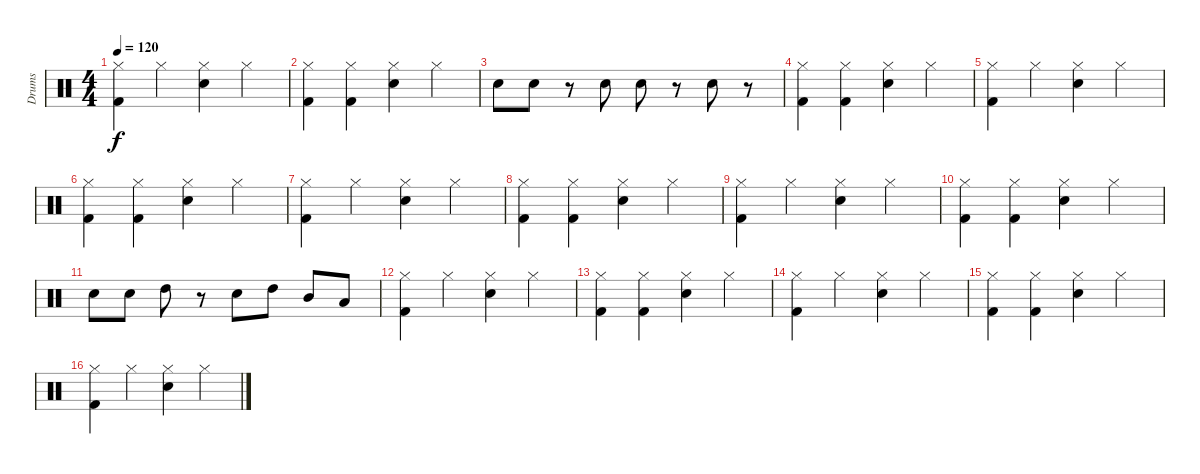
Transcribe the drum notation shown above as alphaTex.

\track ("Drums" "Drums") {instrument percussion}
\staff {score}
\articulation defaults
\ts (4 4)
\tempo 120
\clef neutral
\ks c
("Kick (hit) 2" "Hi-Hat (closed)").4{dy f} "Hi-Hat (closed)".4 ("Snare (hit) 2" "Hi-Hat (closed)").4 "Hi-Hat (closed)".4 |
("Kick (hit) 2" "Hi-Hat (closed)").4 ("Kick (hit) 2" "Hi-Hat (closed)").4 ("Snare (hit) 2" "Hi-Hat (closed)").4 "Hi-Hat (closed)".4 |
"Snare (hit) 2".8 "Snare (hit) 2".8 r.8 "Snare (hit) 2".8 "Snare (hit) 2".8 r.8 "Snare (hit) 2".8 r.8 |
("Kick (hit) 2" "Hi-Hat (closed)").4 ("Kick (hit) 2" "Hi-Hat (closed)").4 ("Snare (hit) 2" "Hi-Hat (closed)").4 "Hi-Hat (closed)".4 |
("Kick (hit) 2" "Hi-Hat (closed)").4 "Hi-Hat (closed)".4 ("Snare (hit) 2" "Hi-Hat (closed)").4 "Hi-Hat (closed)".4 |
("Kick (hit) 2" "Hi-Hat (closed)").4 ("Kick (hit) 2" "Hi-Hat (closed)").4 ("Snare (hit) 2" "Hi-Hat (closed)").4 "Hi-Hat (closed)".4 |
("Kick (hit) 2" "Hi-Hat (closed)").4 "Hi-Hat (closed)".4 ("Snare (hit) 2" "Hi-Hat (closed)").4 "Hi-Hat (closed)".4 |
("Kick (hit) 2" "Hi-Hat (closed)").4 ("Kick (hit) 2" "Hi-Hat (closed)").4 ("Snare (hit) 2" "Hi-Hat (closed)").4 "Hi-Hat (closed)".4 |
("Kick (hit) 2" "Hi-Hat (closed)").4 "Hi-Hat (closed)".4 ("Snare (hit) 2" "Hi-Hat (closed)").4 "Hi-Hat (closed)".4 |
("Kick (hit) 2" "Hi-Hat (closed)").4 ("Kick (hit) 2" "Hi-Hat (closed)").4 ("Snare (hit) 2" "Hi-Hat (closed)").4 "Hi-Hat (closed)".4 |
"Snare (hit) 2".8 "Snare (hit) 2".8 "High Tom (hit)".8 r.8 "Snare (hit) 2".8 "High Tom (hit)".8 "Mid Tom (hit)".8 "Low Tom (hit)".8 |
("Kick (hit) 2" "Hi-Hat (closed)").4 "Hi-Hat (closed)".4 ("Snare (hit) 2" "Hi-Hat (closed)").4 "Hi-Hat (closed)".4 |
("Kick (hit) 2" "Hi-Hat (closed)").4 ("Kick (hit) 2" "Hi-Hat (closed)").4 ("Snare (hit) 2" "Hi-Hat (closed)").4 "Hi-Hat (closed)".4 |
("Kick (hit) 2" "Hi-Hat (closed)").4 "Hi-Hat (closed)".4 ("Snare (hit) 2" "Hi-Hat (closed)").4 "Hi-Hat (closed)".4 |
("Kick (hit) 2" "Hi-Hat (closed)").4 ("Kick (hit) 2" "Hi-Hat (closed)").4 ("Snare (hit) 2" "Hi-Hat (closed)").4 "Hi-Hat (closed)".4 |
("Kick (hit) 2" "Hi-Hat (closed)").4 "Hi-Hat (closed)".4 ("Snare (hit) 2" "Hi-Hat (closed)").4 "Hi-Hat (closed)".4
